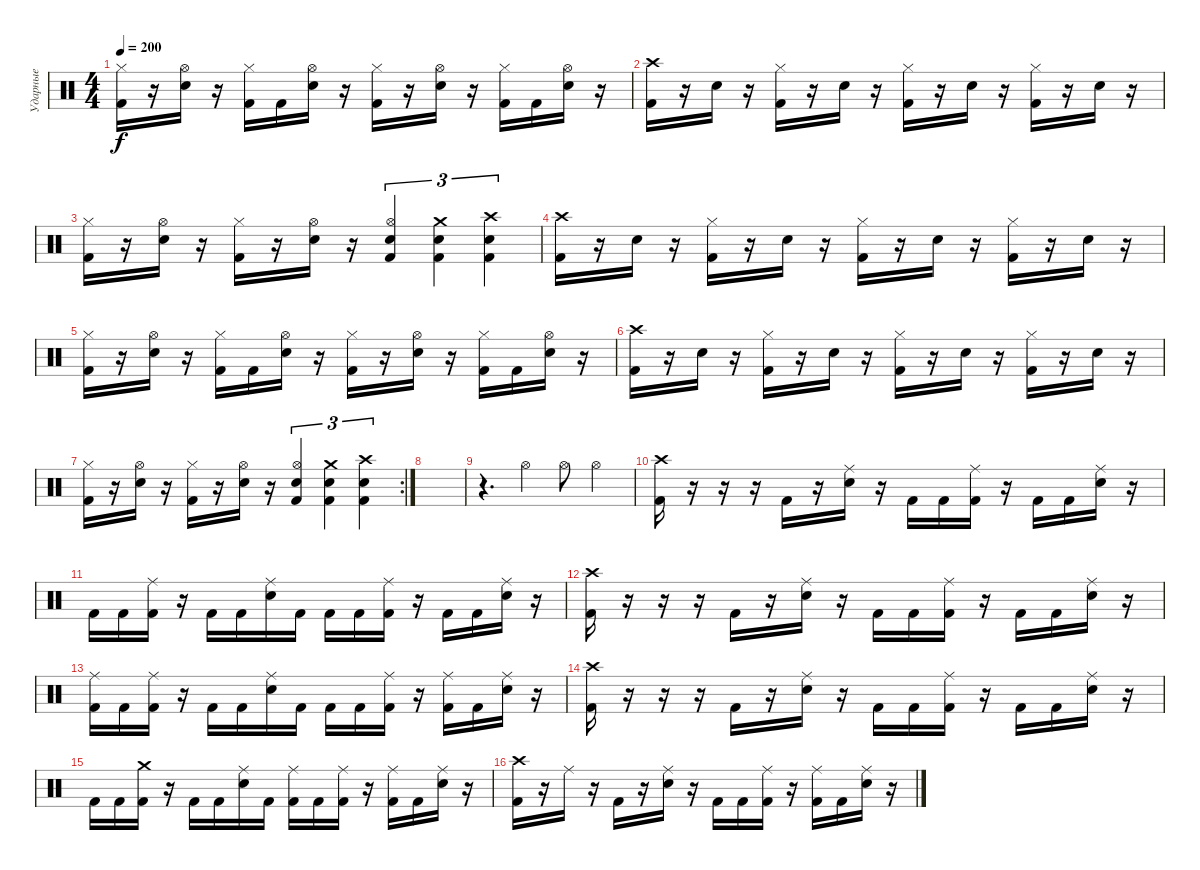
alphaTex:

\track ("Ударные" "Ударные") {instrument percussion}
\staff {score}
\articulation defaults
\ts (4 4)
\tempo 200
\clef neutral
\ks c
("Hi-Hat (closed)" "Kick (hit) 2").16{dy f} r.16 ("Hi-Hat (open)" "Electric Snare (hit)").16 r.16 ("Hi-Hat (closed)" "Kick (hit) 2").16 "Kick (hit) 2".16 ("Hi-Hat (open)" "Electric Snare (hit)").16 r.16 ("Hi-Hat (closed)" "Kick (hit) 2").16 r.16 ("Hi-Hat (open)" "Electric Snare (hit)").16 r.16 ("Hi-Hat (closed)" "Kick (hit) 2").16 "Kick (hit) 2".16 ("Hi-Hat (open)" "Electric Snare (hit)").16 r.16 |
("Crash high (hit)" "Kick (hit) 2").16 r.16 "Electric Snare (hit)".16 r.16 ("Hi-Hat (closed)" "Kick (hit) 2").16 r.16 "Electric Snare (hit)".16 r.16 ("Hi-Hat (closed)" "Kick (hit) 2").16 r.16 "Electric Snare (hit)".16 r.16 ("Hi-Hat (closed)" "Kick (hit) 2").16 r.16 "Electric Snare (hit)".16 r.16 |
("Hi-Hat (closed)" "Kick (hit) 2").16 r.16 ("Hi-Hat (open)" "Electric Snare (hit)").16 r.16 ("Hi-Hat (closed)" "Kick (hit) 2").16 r.16 ("Hi-Hat (open)" "Electric Snare (hit)").16 r.16 ("Hi-Hat (open)" "Electric Snare (hit)" "Kick (hit) 2").4{tu (3 2)} ("Crash medium (hit)" "Electric Snare (hit)" "Kick (hit) 2").4{tu (3 2)} ("Crash high (hit)" "Electric Snare (hit)" "Kick (hit) 2").4{tu (3 2)} |
("Crash high (hit)" "Kick (hit) 2").16 r.16 "Electric Snare (hit)".16 r.16 ("Hi-Hat (closed)" "Kick (hit) 2").16 r.16 "Electric Snare (hit)".16 r.16 ("Hi-Hat (closed)" "Kick (hit) 2").16 r.16 "Electric Snare (hit)".16 r.16 ("Hi-Hat (closed)" "Kick (hit) 2").16 r.16 "Electric Snare (hit)".16 r.16 |
("Hi-Hat (closed)" "Kick (hit) 2").16 r.16 ("Hi-Hat (open)" "Electric Snare (hit)").16 r.16 ("Hi-Hat (closed)" "Kick (hit) 2").16 "Kick (hit) 2".16 ("Hi-Hat (open)" "Electric Snare (hit)").16 r.16 ("Hi-Hat (closed)" "Kick (hit) 2").16 r.16 ("Hi-Hat (open)" "Electric Snare (hit)").16 r.16 ("Hi-Hat (closed)" "Kick (hit) 2").16 "Kick (hit) 2".16 ("Hi-Hat (open)" "Electric Snare (hit)").16 r.16 |
("Crash high (hit)" "Kick (hit) 2").16 r.16 "Electric Snare (hit)".16 r.16 ("Hi-Hat (closed)" "Kick (hit) 2").16 r.16 "Electric Snare (hit)".16 r.16 ("Hi-Hat (closed)" "Kick (hit) 2").16 r.16 "Electric Snare (hit)".16 r.16 ("Hi-Hat (closed)" "Kick (hit) 2").16 r.16 "Electric Snare (hit)".16 r.16 |
\rc 2
("Hi-Hat (closed)" "Kick (hit) 2").16 r.16 ("Hi-Hat (open)" "Electric Snare (hit)").16 r.16 ("Hi-Hat (closed)" "Kick (hit) 2").16 r.16 ("Hi-Hat (open)" "Electric Snare (hit)").16 r.16 ("Hi-Hat (open)" "Electric Snare (hit)" "Kick (hit) 2").4{tu (3 2)} ("Crash medium (hit)" "Electric Snare (hit)" "Kick (hit) 2").4{tu (3 2)} ("Crash high (hit)" "Electric Snare (hit)" "Kick (hit) 2").4{tu (3 2)} |
|
r.4{d} "Hi-Hat (open)".4 "Hi-Hat (open)".8 "Hi-Hat (open)".4 |
("Crash high (hit)" "Kick (hit) 2").16 r.16 r.16 r.16 "Kick (hit) 2".16 r.16 ("Ride (middle)" "Electric Snare (hit)").16 r.16 "Kick (hit) 2".16 "Kick (hit) 2".16 ("Ride (middle)" "Kick (hit) 2").16 r.16 "Kick (hit) 2".16 "Kick (hit) 2".16 ("Ride (middle)" "Electric Snare (hit)").16 r.16 |
"Kick (hit) 2".16 "Kick (hit) 2".16 ("Ride (middle)" "Kick (hit) 2").16 r.16 "Kick (hit) 2".16 "Kick (hit) 2".16 ("Ride (middle)" "Electric Snare (hit)").16 "Kick (hit) 2".16 "Kick (hit) 2".16 "Kick (hit) 2".16 ("Ride (middle)" "Kick (hit) 2").16 r.16 "Kick (hit) 2".16 "Kick (hit) 2".16 ("Ride (middle)" "Electric Snare (hit)").16 r.16 |
("Crash high (hit)" "Kick (hit) 2").16 r.16 r.16 r.16 "Kick (hit) 2".16 r.16 ("Ride (middle)" "Electric Snare (hit)").16 r.16 "Kick (hit) 2".16 "Kick (hit) 2".16 ("Ride (middle)" "Kick (hit) 2").16 r.16 "Kick (hit) 2".16 "Kick (hit) 2".16 ("Ride (middle)" "Electric Snare (hit)").16 r.16 |
("Ride (middle)" "Kick (hit) 2").16 "Kick (hit) 2".16 ("Ride (middle)" "Kick (hit) 2").16 r.16 "Kick (hit) 2".16 "Kick (hit) 2".16 ("Ride (middle)" "Electric Snare (hit)").16 "Kick (hit) 2".16 "Kick (hit) 2".16 "Kick (hit) 2".16 ("Ride (middle)" "Kick (hit) 2").16 r.16 ("Ride (middle)" "Kick (hit) 2").16 "Kick (hit) 2".16 ("Ride (middle)" "Electric Snare (hit)").16 r.16 |
("Crash high (hit)" "Kick (hit) 2").16 r.16 r.16 r.16 "Kick (hit) 2".16 r.16 ("Ride (middle)" "Electric Snare (hit)").16 r.16 "Kick (hit) 2".16 "Kick (hit) 2".16 ("Ride (middle)" "Kick (hit) 2").16 r.16 "Kick (hit) 2".16 "Kick (hit) 2".16 ("Ride (middle)" "Electric Snare (hit)").16 r.16 |
"Kick (hit) 2".16 "Kick (hit) 2".16 ("Crash medium (hit)" "Kick (hit) 2").16 r.16 "Kick (hit) 2".16 "Kick (hit) 2".16 ("Ride (middle)" "Electric Snare (hit)").16 "Kick (hit) 2".16 ("Ride (middle)" "Kick (hit) 2").16 "Kick (hit) 2".16 ("Ride (middle)" "Kick (hit) 2").16 r.16 ("Ride (middle)" "Kick (hit) 2").16 "Kick (hit) 2".16 ("Ride (middle)" "Electric Snare (hit)").16 r.16 |
("Crash high (hit)" "Kick (hit) 2").16 r.16 "Ride (middle)".16 r.16 "Kick (hit) 2".16 r.16 ("Ride (middle)" "Electric Snare (hit)").16 r.16 "Kick (hit) 2".16 "Kick (hit) 2".16 ("Ride (middle)" "Kick (hit) 2").16 r.16 ("Ride (middle)" "Kick (hit) 2").16 "Kick (hit) 2".16 ("Ride (middle)" "Electric Snare (hit)").16 r.16
